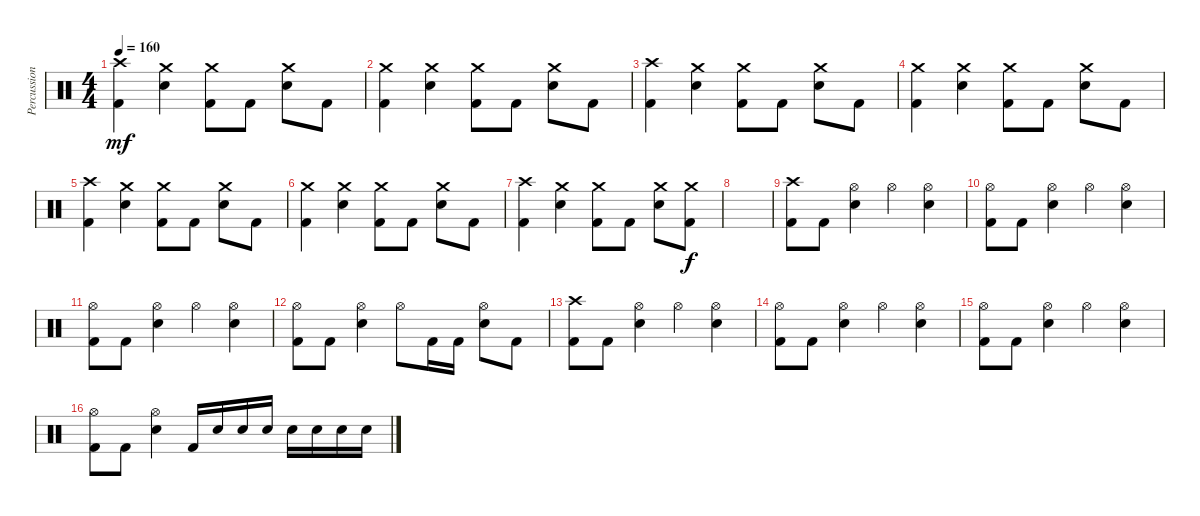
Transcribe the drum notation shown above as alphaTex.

\track ("Percussion" "Percussion") {instrument percussion}
\staff {score}
\articulation defaults
\ts (4 4)
\tempo 160
\clef neutral
\ks c
("Crash high (hit)" "Kick (hit) 2").4{dy mf} ("Crash medium (hit)" "Electric Snare (hit)").4 ("Crash medium (hit)" "Kick (hit) 2").8 "Kick (hit) 2".8 ("Crash medium (hit)" "Electric Snare (hit)").8 "Kick (hit) 2".8 |
("Crash medium (hit)" "Kick (hit) 2").4 ("Crash medium (hit)" "Electric Snare (hit)").4 ("Crash medium (hit)" "Kick (hit) 2").8 "Kick (hit) 2".8 ("Crash medium (hit)" "Electric Snare (hit)").8 "Kick (hit) 2".8 |
("Crash high (hit)" "Kick (hit) 2").4 ("Crash medium (hit)" "Electric Snare (hit)").4 ("Crash medium (hit)" "Kick (hit) 2").8 "Kick (hit) 2".8 ("Crash medium (hit)" "Electric Snare (hit)").8 "Kick (hit) 2".8 |
("Crash medium (hit)" "Kick (hit) 2").4 ("Crash medium (hit)" "Electric Snare (hit)").4 ("Crash medium (hit)" "Kick (hit) 2").8 "Kick (hit) 2".8 ("Crash medium (hit)" "Electric Snare (hit)").8 "Kick (hit) 2".8 |
("Crash high (hit)" "Kick (hit) 2").4 ("Crash medium (hit)" "Electric Snare (hit)").4 ("Crash medium (hit)" "Kick (hit) 2").8 "Kick (hit) 2".8 ("Crash medium (hit)" "Electric Snare (hit)").8 "Kick (hit) 2".8 |
("Crash medium (hit)" "Kick (hit) 2").4 ("Crash medium (hit)" "Electric Snare (hit)").4 ("Crash medium (hit)" "Kick (hit) 2").8 "Kick (hit) 2".8 ("Crash medium (hit)" "Electric Snare (hit)").8 "Kick (hit) 2".8 |
("Crash high (hit)" "Kick (hit) 2").4 ("Crash medium (hit)" "Electric Snare (hit)").4 ("Crash medium (hit)" "Kick (hit) 2").8 "Kick (hit) 2".8 ("Crash medium (hit)" "Electric Snare (hit)").8 ("Crash medium (hit)" "Kick (hit) 2").8{dy f} |
|
("Crash high (hit)" "Kick (hit) 2").8 "Kick (hit) 2".8 ("Hi-Hat (open)" "Electric Snare (hit)").4 "Hi-Hat (open)".4 ("Hi-Hat (open)" "Electric Snare (hit)").4 |
("Hi-Hat (open)" "Kick (hit) 2").8 "Kick (hit) 2".8 ("Hi-Hat (open)" "Electric Snare (hit)").4 "Hi-Hat (open)".4 ("Hi-Hat (open)" "Electric Snare (hit)").4 |
("Hi-Hat (open)" "Kick (hit) 2").8 "Kick (hit) 2".8 ("Hi-Hat (open)" "Electric Snare (hit)").4 "Hi-Hat (open)".4 ("Hi-Hat (open)" "Electric Snare (hit)").4 |
("Hi-Hat (open)" "Kick (hit) 2").8 "Kick (hit) 2".8 ("Hi-Hat (open)" "Electric Snare (hit)").4 "Hi-Hat (open)".8 "Kick (hit) 2".16 "Kick (hit) 2".16 ("Hi-Hat (open)" "Electric Snare (hit)").8 "Kick (hit) 2".8 |
("Crash high (hit)" "Kick (hit) 2").8 "Kick (hit) 2".8 ("Hi-Hat (open)" "Electric Snare (hit)").4 "Hi-Hat (open)".4 ("Hi-Hat (open)" "Electric Snare (hit)").4 |
("Hi-Hat (open)" "Kick (hit) 2").8 "Kick (hit) 2".8 ("Hi-Hat (open)" "Electric Snare (hit)").4 "Hi-Hat (open)".4 ("Hi-Hat (open)" "Electric Snare (hit)").4 |
("Hi-Hat (open)" "Kick (hit) 2").8 "Kick (hit) 2".8 ("Hi-Hat (open)" "Electric Snare (hit)").4 "Hi-Hat (open)".4 ("Hi-Hat (open)" "Electric Snare (hit)").4 |
("Hi-Hat (open)" "Kick (hit) 2").8 "Kick (hit) 2".8 ("Hi-Hat (open)" "Electric Snare (hit)").4 "Kick (hit) 2".16 "Electric Snare (hit)".16 "Electric Snare (hit)".16 "Electric Snare (hit)".16 "Electric Snare (hit)".16 "Electric Snare (hit)".16 "Electric Snare (hit)".16 "Electric Snare (hit)".16
